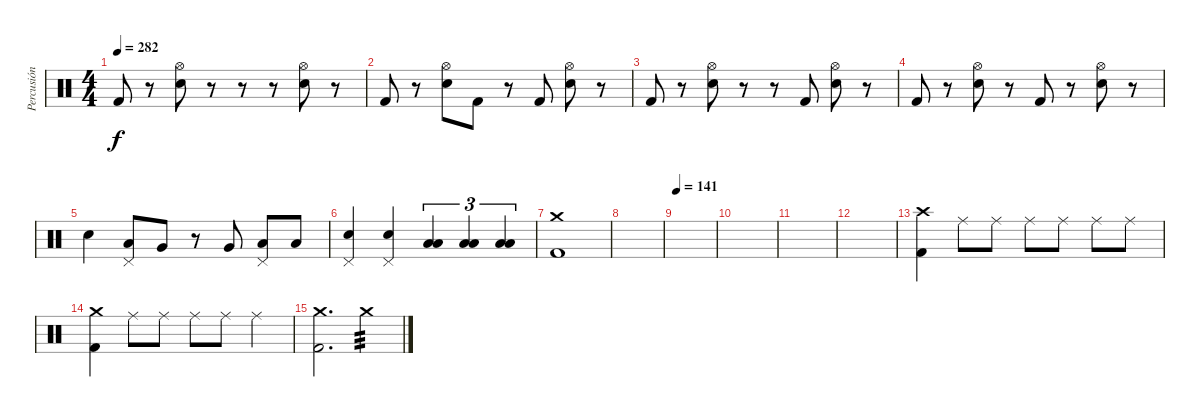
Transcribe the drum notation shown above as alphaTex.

\track ("Percusión" "Percusión") {instrument percussion}
\staff {score}
\articulation defaults
\ts (4 4)
\tempo 282
\clef neutral
\ks c "Kick (hit) 2".8{dy f}
r.8 ("Snare (hit) 2" "Hi-Hat (open)").8 r.8 r.8 r.8 ("Snare (hit) 2" "Hi-Hat (open)").8 r.8 |
"Kick (hit) 2".8 r.8 ("Snare (hit) 2" "Hi-Hat (open)").8 "Kick (hit) 2".8 r.8 "Kick (hit) 2".8 ("Snare (hit) 2" "Hi-Hat (open)").8 r.8 |
"Kick (hit) 2".8 r.8 ("Snare (hit) 2" "Hi-Hat (open)").8 r.8 r.8 "Kick (hit) 2".8 ("Snare (hit) 2" "Hi-Hat (open)").8 r.8 |
"Kick (hit) 2".8 r.8 ("Snare (hit) 2" "Hi-Hat (open)").8 r.8 "Kick (hit) 2".8 r.8 ("Snare (hit) 2" "Hi-Hat (open)").8 r.8 |
"Snare (hit) 2".4 ("Low Tom (hit)" "Pedal Hi-Hat (hit)").8 "Very Low Tom (hit)".8 r.8 "Very Low Tom (hit)".8 ("Low Floor Tom (hit)" "Pedal Hi-Hat (hit)").8 "Low Floor Tom (hit)".8 |
("Snare (hit) 2" "Pedal Hi-Hat (hit)").4 ("Snare (hit) 2" "Pedal Hi-Hat (hit)").4 ("Low Tom (hit)" "Low Floor Tom (hit)").4{tu (3 2)} ("Low Tom (hit)" "Low Floor Tom (hit)").4{tu (3 2)} ("Low Tom (hit)" "Low Floor Tom (hit)").4{tu (3 2)} |
("Kick (hit) 2" "Crash medium (hit)").1 |
|
\tempo 141
|
|
|
|
("Kick (hit) 2" "Crash high (hit)").4 "Ride (middle)".8 "Ride (middle)".8 "Ride (middle)".8 "Ride (middle)".8 "Ride (middle)".8 "Ride (middle)".8 |
("Kick (hit) 2" "Crash medium (hit)").4 "Ride (middle)".8 "Ride (middle)".8 "Ride (middle)".8 "Ride (middle)".8 "Ride (middle)".4 |
("Kick (hit) 2" "Crash medium (hit)").2{d} "Crash medium (hit)".4{tp 3}
